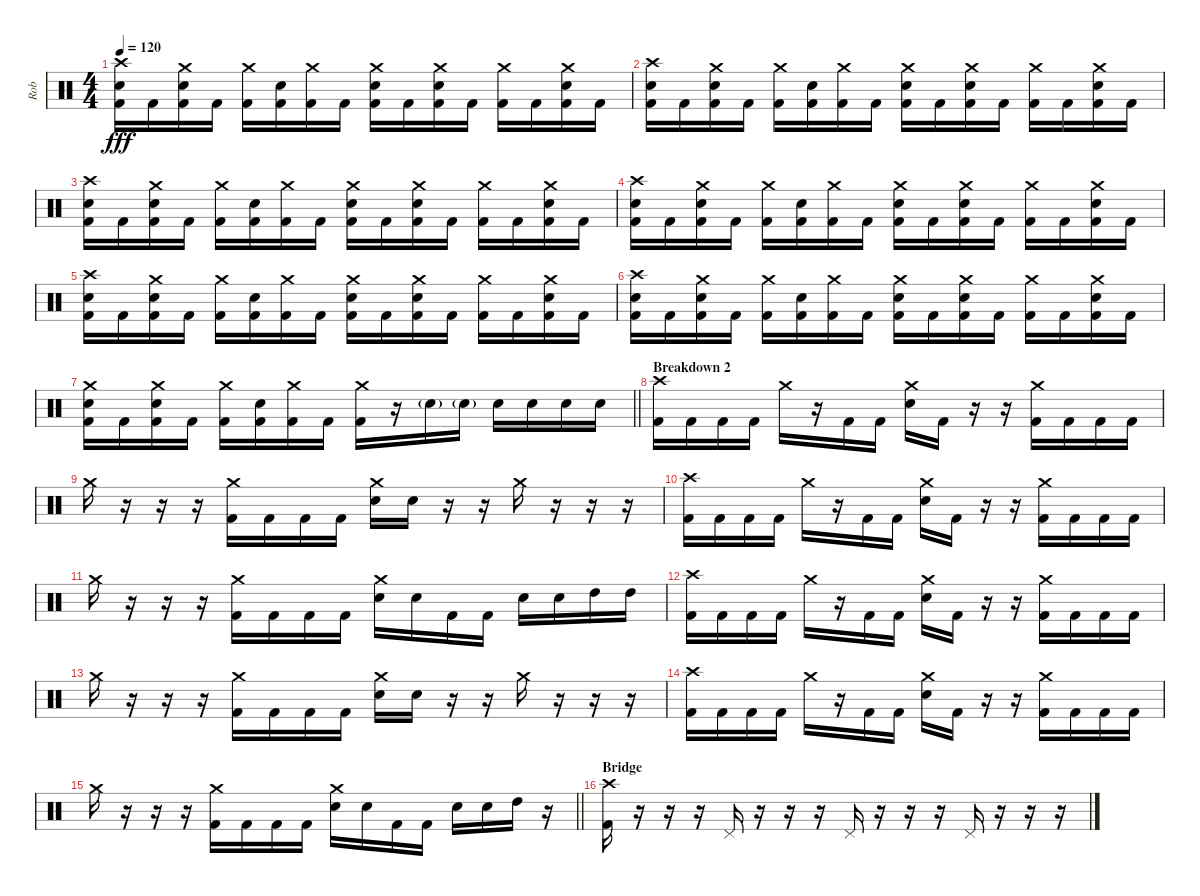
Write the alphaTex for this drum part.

\track ("Rob" "Rob") {instrument percussion}
\staff {score}
\articulation defaults
\ts (4 4)
\tempo 120
\clef neutral
\ks c
("Crash high (hit)" "Electric Snare (hit)" "Kick (hit) 2").16{dy fff} "Kick (hit) 2".16 ("Crash medium (hit)" "Electric Snare (hit)" "Kick (hit) 2").16 "Kick (hit) 2".16 ("Crash medium (hit)" "Kick (hit) 2").16 ("Electric Snare (hit)" "Kick (hit) 2").16 ("Crash medium (hit)" "Kick (hit) 2").16 "Kick (hit) 2".16 ("Crash medium (hit)" "Electric Snare (hit)" "Kick (hit) 2").16 "Kick (hit) 2".16 ("Crash medium (hit)" "Electric Snare (hit)" "Kick (hit) 2").16 "Kick (hit) 2".16 ("Crash medium (hit)" "Kick (hit) 2").16 "Kick (hit) 2".16 ("Crash medium (hit)" "Electric Snare (hit)" "Kick (hit) 2").16 "Kick (hit) 2".16 |
("Crash high (hit)" "Electric Snare (hit)" "Kick (hit) 2").16 "Kick (hit) 2".16 ("Crash medium (hit)" "Electric Snare (hit)" "Kick (hit) 2").16 "Kick (hit) 2".16 ("Crash medium (hit)" "Kick (hit) 2").16 ("Electric Snare (hit)" "Kick (hit) 2").16 ("Crash medium (hit)" "Kick (hit) 2").16 "Kick (hit) 2".16 ("Crash medium (hit)" "Electric Snare (hit)" "Kick (hit) 2").16 "Kick (hit) 2".16 ("Crash medium (hit)" "Electric Snare (hit)" "Kick (hit) 2").16 "Kick (hit) 2".16 ("Crash medium (hit)" "Kick (hit) 2").16 "Kick (hit) 2".16 ("Crash medium (hit)" "Electric Snare (hit)" "Kick (hit) 2").16 "Kick (hit) 2".16 |
("Crash high (hit)" "Electric Snare (hit)" "Kick (hit) 2").16 "Kick (hit) 2".16 ("Crash medium (hit)" "Electric Snare (hit)" "Kick (hit) 2").16 "Kick (hit) 2".16 ("Crash medium (hit)" "Kick (hit) 2").16 ("Electric Snare (hit)" "Kick (hit) 2").16 ("Crash medium (hit)" "Kick (hit) 2").16 "Kick (hit) 2".16 ("Crash medium (hit)" "Electric Snare (hit)" "Kick (hit) 2").16 "Kick (hit) 2".16 ("Crash medium (hit)" "Electric Snare (hit)" "Kick (hit) 2").16 "Kick (hit) 2".16 ("Crash medium (hit)" "Kick (hit) 2").16 "Kick (hit) 2".16 ("Crash medium (hit)" "Electric Snare (hit)" "Kick (hit) 2").16 "Kick (hit) 2".16 |
("Crash high (hit)" "Electric Snare (hit)" "Kick (hit) 2").16 "Kick (hit) 2".16 ("Crash medium (hit)" "Electric Snare (hit)" "Kick (hit) 2").16 "Kick (hit) 2".16 ("Crash medium (hit)" "Kick (hit) 2").16 ("Electric Snare (hit)" "Kick (hit) 2").16 ("Crash medium (hit)" "Kick (hit) 2").16 "Kick (hit) 2".16 ("Crash medium (hit)" "Electric Snare (hit)" "Kick (hit) 2").16 "Kick (hit) 2".16 ("Crash medium (hit)" "Electric Snare (hit)" "Kick (hit) 2").16 "Kick (hit) 2".16 ("Crash medium (hit)" "Kick (hit) 2").16 "Kick (hit) 2".16 ("Crash medium (hit)" "Electric Snare (hit)" "Kick (hit) 2").16 "Kick (hit) 2".16 |
("Crash high (hit)" "Electric Snare (hit)" "Kick (hit) 2").16 "Kick (hit) 2".16 ("Crash medium (hit)" "Electric Snare (hit)" "Kick (hit) 2").16 "Kick (hit) 2".16 ("Crash medium (hit)" "Kick (hit) 2").16 ("Electric Snare (hit)" "Kick (hit) 2").16 ("Crash medium (hit)" "Kick (hit) 2").16 "Kick (hit) 2".16 ("Crash medium (hit)" "Electric Snare (hit)" "Kick (hit) 2").16 "Kick (hit) 2".16 ("Crash medium (hit)" "Electric Snare (hit)" "Kick (hit) 2").16 "Kick (hit) 2".16 ("Crash medium (hit)" "Kick (hit) 2").16 "Kick (hit) 2".16 ("Crash medium (hit)" "Electric Snare (hit)" "Kick (hit) 2").16 "Kick (hit) 2".16 |
("Crash high (hit)" "Electric Snare (hit)" "Kick (hit) 2").16 "Kick (hit) 2".16 ("Crash medium (hit)" "Electric Snare (hit)" "Kick (hit) 2").16 "Kick (hit) 2".16 ("Crash medium (hit)" "Kick (hit) 2").16 ("Electric Snare (hit)" "Kick (hit) 2").16 ("Crash medium (hit)" "Kick (hit) 2").16 "Kick (hit) 2".16 ("Crash medium (hit)" "Electric Snare (hit)" "Kick (hit) 2").16 "Kick (hit) 2".16 ("Crash medium (hit)" "Electric Snare (hit)" "Kick (hit) 2").16 "Kick (hit) 2".16 ("Crash medium (hit)" "Kick (hit) 2").16 "Kick (hit) 2".16 ("Crash medium (hit)" "Electric Snare (hit)" "Kick (hit) 2").16 "Kick (hit) 2".16 |
\barLineRight lightlight
("Crash medium (hit)" "Electric Snare (hit)" "Kick (hit) 2").16 "Kick (hit) 2".16 ("Crash medium (hit)" "Electric Snare (hit)" "Kick (hit) 2").16 "Kick (hit) 2".16 ("Crash medium (hit)" "Kick (hit) 2").16 ("Electric Snare (hit)" "Kick (hit) 2").16 ("Crash medium (hit)" "Kick (hit) 2").16 "Kick (hit) 2".16 ("Crash medium (hit)" "Kick (hit) 2").16 r.16 "Electric Snare (hit)"{g}.16 "Electric Snare (hit)"{g}.16 "Electric Snare (hit)".16 "Electric Snare (hit)".16 "Electric Snare (hit)".16 "Electric Snare (hit)".16 |
\section ("" "Breakdown 2")
("Crash high (hit)" "Kick (hit) 2").16 "Kick (hit) 2".16 "Kick (hit) 2".16 "Kick (hit) 2".16 "Crash medium (hit)".16 r.16 "Kick (hit) 2".16 "Kick (hit) 2".16 ("Crash medium (hit)" "Electric Snare (hit)").16 "Kick (hit) 2".16 r.16 r.16 ("Crash medium (hit)" "Kick (hit) 2").16 "Kick (hit) 2".16 "Kick (hit) 2".16 "Kick (hit) 2".16 |
"Crash medium (hit)".16 r.16 r.16 r.16 ("Crash medium (hit)" "Kick (hit) 2").16 "Kick (hit) 2".16 "Kick (hit) 2".16 "Kick (hit) 2".16 ("Crash medium (hit)" "Electric Snare (hit)").16 "Electric Snare (hit)".16 r.16 r.16 "Crash medium (hit)".16 r.16 r.16 r.16 |
("Crash high (hit)" "Kick (hit) 2").16 "Kick (hit) 2".16 "Kick (hit) 2".16 "Kick (hit) 2".16 "Crash medium (hit)".16 r.16 "Kick (hit) 2".16 "Kick (hit) 2".16 ("Crash medium (hit)" "Electric Snare (hit)").16 "Kick (hit) 2".16 r.16 r.16 ("Crash medium (hit)" "Kick (hit) 2").16 "Kick (hit) 2".16 "Kick (hit) 2".16 "Kick (hit) 2".16 |
"Crash medium (hit)".16 r.16 r.16 r.16 ("Crash medium (hit)" "Kick (hit) 2").16 "Kick (hit) 2".16 "Kick (hit) 2".16 "Kick (hit) 2".16 ("Crash medium (hit)" "Electric Snare (hit)").16 "Electric Snare (hit)".16 "Kick (hit) 2".16 "Kick (hit) 2".16 "Electric Snare (hit)".16 "Electric Snare (hit)".16 "High Tom (hit)".16 "High Tom (hit)".16 |
("Crash high (hit)" "Kick (hit) 2").16 "Kick (hit) 2".16 "Kick (hit) 2".16 "Kick (hit) 2".16 "Crash medium (hit)".16 r.16 "Kick (hit) 2".16 "Kick (hit) 2".16 ("Crash medium (hit)" "Electric Snare (hit)").16 "Kick (hit) 2".16 r.16 r.16 ("Crash medium (hit)" "Kick (hit) 2").16 "Kick (hit) 2".16 "Kick (hit) 2".16 "Kick (hit) 2".16 |
"Crash medium (hit)".16 r.16 r.16 r.16 ("Crash medium (hit)" "Kick (hit) 2").16 "Kick (hit) 2".16 "Kick (hit) 2".16 "Kick (hit) 2".16 ("Crash medium (hit)" "Electric Snare (hit)").16 "Electric Snare (hit)".16 r.16 r.16 "Crash medium (hit)".16 r.16 r.16 r.16 |
("Crash high (hit)" "Kick (hit) 2").16 "Kick (hit) 2".16 "Kick (hit) 2".16 "Kick (hit) 2".16 "Crash medium (hit)".16 r.16 "Kick (hit) 2".16 "Kick (hit) 2".16 ("Crash medium (hit)" "Electric Snare (hit)").16 "Kick (hit) 2".16 r.16 r.16 ("Crash medium (hit)" "Kick (hit) 2").16 "Kick (hit) 2".16 "Kick (hit) 2".16 "Kick (hit) 2".16 |
\barLineRight lightlight "Crash medium (hit)".16
r.16 r.16 r.16 ("Crash medium (hit)" "Kick (hit) 2").16 "Kick (hit) 2".16 "Kick (hit) 2".16 "Kick (hit) 2".16 ("Crash medium (hit)" "Electric Snare (hit)").16 "Electric Snare (hit)".16 "Kick (hit) 2".16 "Kick (hit) 2".16 "Electric Snare (hit)".16 "Electric Snare (hit)".16 "High Tom (hit)".16 r.16 |
\section ("" "Bridge")
("Crash high (hit)" "Kick (hit) 2").16 r.16 r.16 r.16 "Pedal Hi-Hat (hit)".16 r.16 r.16 r.16 "Pedal Hi-Hat (hit)".16 r.16 r.16 r.16 "Pedal Hi-Hat (hit)".16 r.16 r.16 r.16
